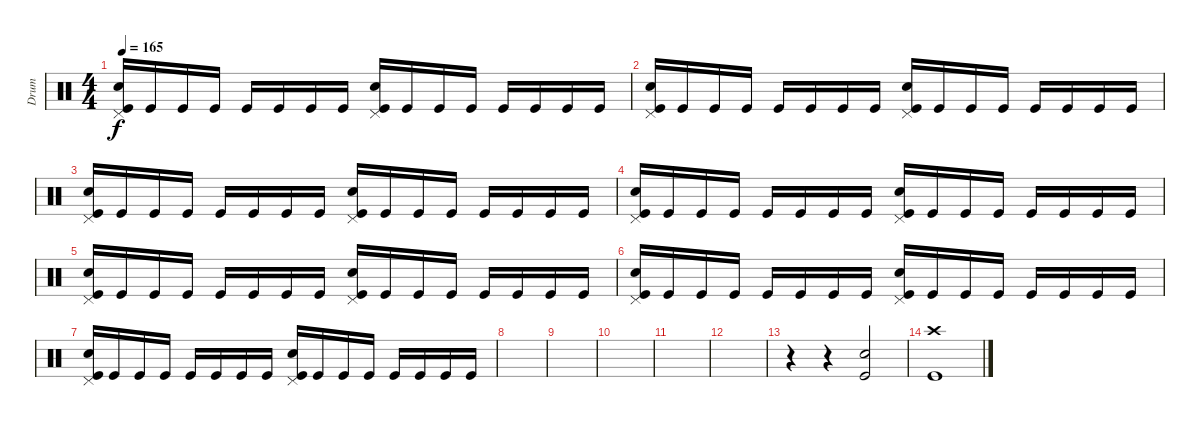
\track ("Drum" "Drum") {instrument percussion}
\staff {score}
\articulation defaults
\ts (4 4)
\tempo 165
\clef neutral
\ks c
("Pedal Hi-Hat (hit)" "Electric Snare (hit)" "Kick (hit)").16{dy f} "Kick (hit)".16 "Kick (hit)".16 "Kick (hit)".16 "Kick (hit)".16 "Kick (hit)".16 "Kick (hit)".16 "Kick (hit)".16 ("Pedal Hi-Hat (hit)" "Electric Snare (hit)" "Kick (hit)").16 "Kick (hit)".16 "Kick (hit)".16 "Kick (hit)".16 "Kick (hit)".16 "Kick (hit)".16 "Kick (hit)".16 "Kick (hit)".16 |
("Pedal Hi-Hat (hit)" "Electric Snare (hit)" "Kick (hit)").16 "Kick (hit)".16 "Kick (hit)".16 "Kick (hit)".16 "Kick (hit)".16 "Kick (hit)".16 "Kick (hit)".16 "Kick (hit)".16 ("Pedal Hi-Hat (hit)" "Electric Snare (hit)" "Kick (hit)").16 "Kick (hit)".16 "Kick (hit)".16 "Kick (hit)".16 "Kick (hit)".16 "Kick (hit)".16 "Kick (hit)".16 "Kick (hit)".16 |
("Pedal Hi-Hat (hit)" "Electric Snare (hit)" "Kick (hit)").16 "Kick (hit)".16 "Kick (hit)".16 "Kick (hit)".16 "Kick (hit)".16 "Kick (hit)".16 "Kick (hit)".16 "Kick (hit)".16 ("Pedal Hi-Hat (hit)" "Electric Snare (hit)" "Kick (hit)").16 "Kick (hit)".16 "Kick (hit)".16 "Kick (hit)".16 "Kick (hit)".16 "Kick (hit)".16 "Kick (hit)".16 "Kick (hit)".16 |
("Pedal Hi-Hat (hit)" "Electric Snare (hit)" "Kick (hit)").16 "Kick (hit)".16 "Kick (hit)".16 "Kick (hit)".16 "Kick (hit)".16 "Kick (hit)".16 "Kick (hit)".16 "Kick (hit)".16 ("Pedal Hi-Hat (hit)" "Electric Snare (hit)" "Kick (hit)").16 "Kick (hit)".16 "Kick (hit)".16 "Kick (hit)".16 "Kick (hit)".16 "Kick (hit)".16 "Kick (hit)".16 "Kick (hit)".16 |
("Pedal Hi-Hat (hit)" "Electric Snare (hit)" "Kick (hit)").16 "Kick (hit)".16 "Kick (hit)".16 "Kick (hit)".16 "Kick (hit)".16 "Kick (hit)".16 "Kick (hit)".16 "Kick (hit)".16 ("Pedal Hi-Hat (hit)" "Electric Snare (hit)" "Kick (hit)").16 "Kick (hit)".16 "Kick (hit)".16 "Kick (hit)".16 "Kick (hit)".16 "Kick (hit)".16 "Kick (hit)".16 "Kick (hit)".16 |
("Pedal Hi-Hat (hit)" "Electric Snare (hit)" "Kick (hit)").16 "Kick (hit)".16 "Kick (hit)".16 "Kick (hit)".16 "Kick (hit)".16 "Kick (hit)".16 "Kick (hit)".16 "Kick (hit)".16 ("Pedal Hi-Hat (hit)" "Electric Snare (hit)" "Kick (hit)").16 "Kick (hit)".16 "Kick (hit)".16 "Kick (hit)".16 "Kick (hit)".16 "Kick (hit)".16 "Kick (hit)".16 "Kick (hit)".16 |
("Pedal Hi-Hat (hit)" "Electric Snare (hit)" "Kick (hit)").16 "Kick (hit)".16 "Kick (hit)".16 "Kick (hit)".16 "Kick (hit)".16 "Kick (hit)".16 "Kick (hit)".16 "Kick (hit)".16 ("Pedal Hi-Hat (hit)" "Electric Snare (hit)" "Kick (hit)").16 "Kick (hit)".16 "Kick (hit)".16 "Kick (hit)".16 "Kick (hit)".16 "Kick (hit)".16 "Kick (hit)".16 "Kick (hit)".16 |
|
|
|
|
|
r.4 r.4 ("Kick (hit)" "Electric Snare (hit)").2 |
("Crash high (hit)" "Kick (hit)").1
